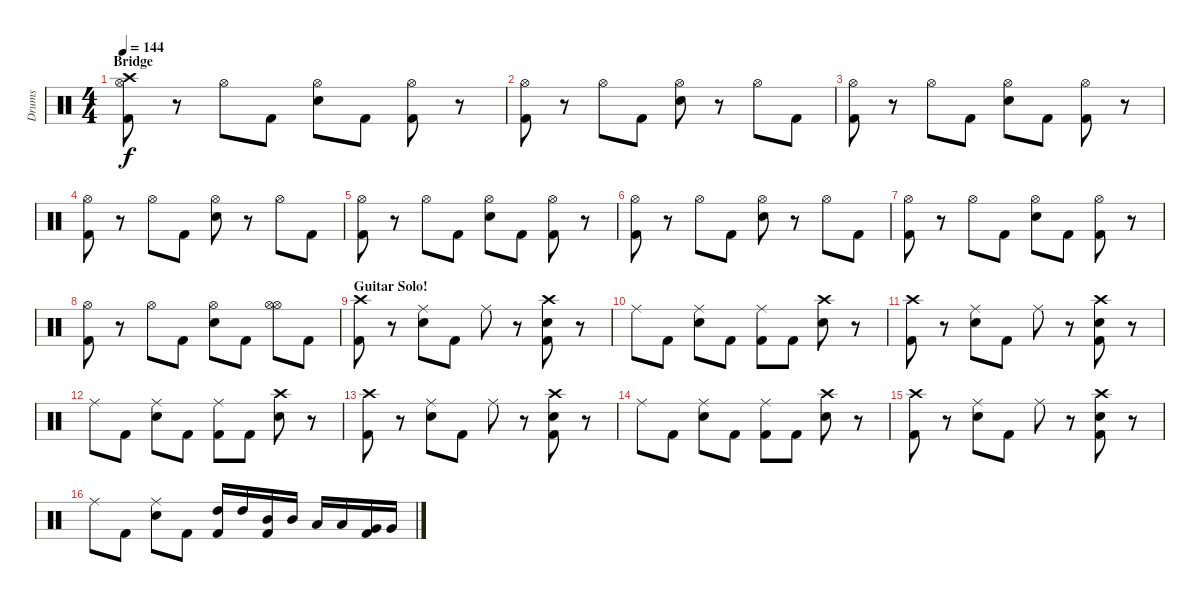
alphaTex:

\track ("Drums" "Drums") {instrument percussion}
\staff {score}
\articulation defaults
\ts (4 4)
\section ("" "Bridge")
\tempo 144
\clef neutral
\ks c
("Crash high (hit)" "Hi-Hat (open)" "Kick (hit) 2").8{dy f} r.8 "Hi-Hat (open)".8 "Kick (hit) 2".8 ("Hi-Hat (open)" "Electric Snare (hit)").8 "Kick (hit) 2".8 ("Hi-Hat (open)" "Kick (hit) 2").8 r.8 |
("Hi-Hat (open)" "Kick (hit) 2").8 r.8 "Hi-Hat (open)".8 "Kick (hit) 2".8 ("Hi-Hat (open)" "Electric Snare (hit)").8 r.8 "Hi-Hat (open)".8 "Kick (hit) 2".8 |
("Hi-Hat (open)" "Kick (hit) 2").8 r.8 "Hi-Hat (open)".8 "Kick (hit) 2".8 ("Hi-Hat (open)" "Electric Snare (hit)").8 "Kick (hit) 2".8 ("Hi-Hat (open)" "Kick (hit) 2").8 r.8 |
("Hi-Hat (open)" "Kick (hit) 2").8 r.8 "Hi-Hat (open)".8 "Kick (hit) 2".8 ("Hi-Hat (open)" "Electric Snare (hit)").8 r.8 "Hi-Hat (open)".8 "Kick (hit) 2".8 |
("Hi-Hat (open)" "Kick (hit) 2").8 r.8 "Hi-Hat (open)".8 "Kick (hit) 2".8 ("Hi-Hat (open)" "Electric Snare (hit)").8 "Kick (hit) 2".8 ("Hi-Hat (open)" "Kick (hit) 2").8 r.8 |
("Hi-Hat (open)" "Kick (hit) 2").8 r.8 "Hi-Hat (open)".8 "Kick (hit) 2".8 ("Hi-Hat (open)" "Electric Snare (hit)").8 r.8 "Hi-Hat (open)".8 "Kick (hit) 2".8 |
("Hi-Hat (open)" "Kick (hit) 2").8 r.8 "Hi-Hat (open)".8 "Kick (hit) 2".8 ("Hi-Hat (open)" "Electric Snare (hit)").8 "Kick (hit) 2".8 ("Hi-Hat (open)" "Kick (hit) 2").8 r.8 |
("Hi-Hat (open)" "Kick (hit) 2").8 r.8 "Hi-Hat (open)".8 "Kick (hit) 2".8 ("Hi-Hat (open)" "Electric Snare (hit)").8 "Kick (hit) 2".8 ("Hi-Hat (open)" "Hi-Hat (open)").8 "Kick (hit) 2".8 |
\section ("" "Guitar Solo!")
("Crash high (hit)" "Kick (hit) 2").8 r.8 ("Ride (middle)" "Electric Snare (hit)").8 "Kick (hit) 2".8 "Ride (middle)".8 r.8 ("Crash high (hit)" "Electric Snare (hit)" "Kick (hit) 2").8 r.8 |
"Ride (middle)".8 "Kick (hit) 2".8 ("Ride (middle)" "Electric Snare (hit)").8 "Kick (hit) 2".8 ("Ride (middle)" "Kick (hit) 2").8 "Kick (hit) 2".8 ("Crash high (hit)" "Electric Snare (hit)").8 r.8 |
("Crash high (hit)" "Kick (hit) 2").8 r.8 ("Ride (middle)" "Electric Snare (hit)").8 "Kick (hit) 2".8 "Ride (middle)".8 r.8 ("Crash high (hit)" "Electric Snare (hit)" "Kick (hit) 2").8 r.8 |
"Ride (middle)".8 "Kick (hit) 2".8 ("Ride (middle)" "Electric Snare (hit)").8 "Kick (hit) 2".8 ("Ride (middle)" "Kick (hit) 2").8 "Kick (hit) 2".8 ("Crash high (hit)" "Electric Snare (hit)").8 r.8 |
("Crash high (hit)" "Kick (hit) 2").8 r.8 ("Ride (middle)" "Electric Snare (hit)").8 "Kick (hit) 2".8 "Ride (middle)".8 r.8 ("Crash high (hit)" "Electric Snare (hit)" "Kick (hit) 2").8 r.8 |
"Ride (middle)".8 "Kick (hit) 2".8 ("Ride (middle)" "Electric Snare (hit)").8 "Kick (hit) 2".8 ("Ride (middle)" "Kick (hit) 2").8 "Kick (hit) 2".8 ("Crash high (hit)" "Electric Snare (hit)").8 r.8 |
("Crash high (hit)" "Kick (hit) 2").8 r.8 ("Ride (middle)" "Electric Snare (hit)").8 "Kick (hit) 2".8 "Ride (middle)".8 r.8 ("Crash high (hit)" "Electric Snare (hit)" "Kick (hit) 2").8 r.8 |
"Ride (middle)".8 "Kick (hit) 2".8 ("Ride (middle)" "Electric Snare (hit)").8 "Kick (hit) 2".8 ("High Tom (hit)" "Kick (hit) 2").16 "High Tom (hit)".16 ("Mid Tom (hit)" "Kick (hit) 2").16 "Mid Tom (hit)".16 "Low Tom (hit)".16 "Low Tom (hit)".16 ("Very Low Tom (hit)" "Kick (hit) 2").16 "Very Low Tom (hit)".16
